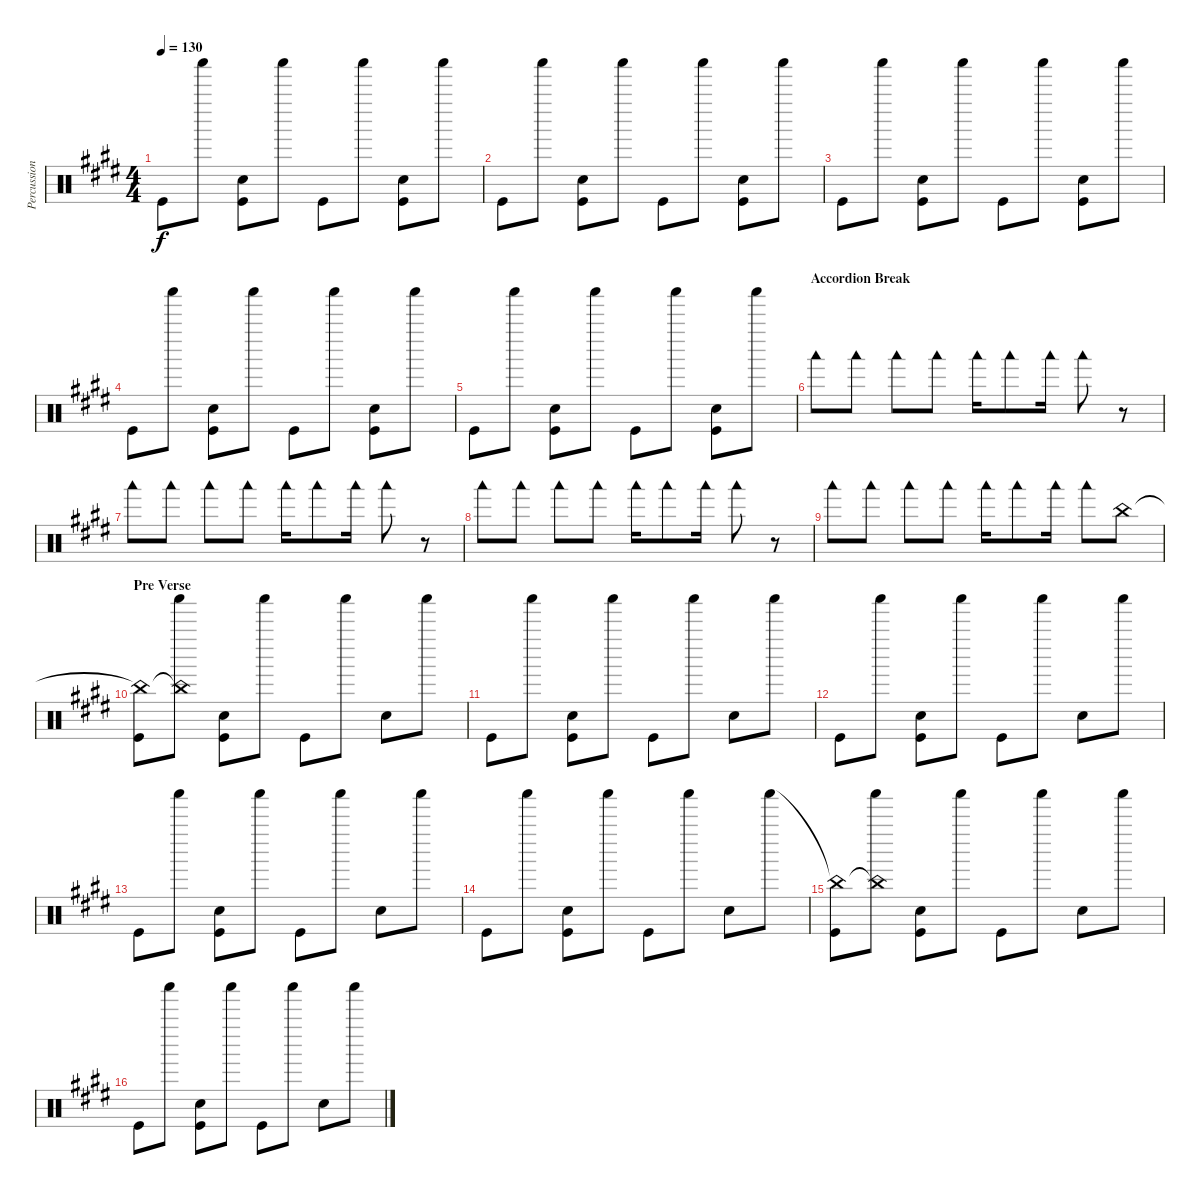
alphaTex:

\track ("Percussion" "Percussion") {instrument percussion}
\staff {score}
\articulation defaults
\ts (4 4)
\tempo 130
\clef neutral
\ks e "Kick (hit)".8{dy f} "Shaker (hit)".8
("Electric Snare (hit)" "Kick (hit)").8 "Shaker (hit)".8 "Kick (hit)".8 "Shaker (hit)".8 ("Electric Snare (hit)" "Kick (hit)").8 "Shaker (hit)".8 |
"Kick (hit)".8 "Shaker (hit)".8 ("Electric Snare (hit)" "Kick (hit)").8 "Shaker (hit)".8 "Kick (hit)".8 "Shaker (hit)".8 ("Electric Snare (hit)" "Kick (hit)").8 "Shaker (hit)".8 |
"Kick (hit)".8 "Shaker (hit)".8 ("Electric Snare (hit)" "Kick (hit)").8 "Shaker (hit)".8 "Kick (hit)".8 "Shaker (hit)".8 ("Electric Snare (hit)" "Kick (hit)").8 "Shaker (hit)".8 |
"Kick (hit)".8 "Shaker (hit)".8 ("Electric Snare (hit)" "Kick (hit)").8 "Shaker (hit)".8 "Kick (hit)".8 "Shaker (hit)".8 ("Electric Snare (hit)" "Kick (hit)").8 "Shaker (hit)".8 |
"Kick (hit)".8 "Shaker (hit)".8 ("Electric Snare (hit)" "Kick (hit)").8 "Shaker (hit)".8 "Kick (hit)".8 "Shaker (hit)".8 ("Electric Snare (hit)" "Kick (hit)").8 "Shaker (hit)".8 |
\section ("" "Accordion Break")
"Woodblock low (hit)".8 "Woodblock low (hit)".8 "Woodblock low (hit)".8 "Woodblock low (hit)".8 "Woodblock low (hit)".16 "Woodblock low (hit)".8 "Woodblock low (hit)".16 "Woodblock low (hit)".8 r.8 |
"Woodblock low (hit)".8 "Woodblock low (hit)".8 "Woodblock low (hit)".8 "Woodblock low (hit)".8 "Woodblock low (hit)".16 "Woodblock low (hit)".8 "Woodblock low (hit)".16 "Woodblock low (hit)".8 r.8 |
"Woodblock low (hit)".8 "Woodblock low (hit)".8 "Woodblock low (hit)".8 "Woodblock low (hit)".8 "Woodblock low (hit)".16 "Woodblock low (hit)".8 "Woodblock low (hit)".16 "Woodblock low (hit)".8 r.8 |
"Woodblock low (hit)".8 "Woodblock low (hit)".8 "Woodblock low (hit)".8 "Woodblock low (hit)".8 "Woodblock low (hit)".16 "Woodblock low (hit)".8 "Woodblock low (hit)".16 "Woodblock low (hit)".8 "China (hit)".8 |
\section ("" "Pre Verse")
("China (hit)"{t} "Kick (hit)").8 ("China (hit)"{t} "Shaker (hit)").8 ("Electric Snare (hit)" "Kick (hit)").8 "Shaker (hit)".8 "Kick (hit)".8 "Shaker (hit)".8 "Electric Snare (hit)".8 "Shaker (hit)".8 |
"Kick (hit)".8 "Shaker (hit)".8 ("Electric Snare (hit)" "Kick (hit)").8 "Shaker (hit)".8 "Kick (hit)".8 "Shaker (hit)".8 "Electric Snare (hit)".8 "Shaker (hit)".8 |
"Kick (hit)".8 "Shaker (hit)".8 ("Electric Snare (hit)" "Kick (hit)").8 "Shaker (hit)".8 "Kick (hit)".8 "Shaker (hit)".8 "Electric Snare (hit)".8 "Shaker (hit)".8 |
"Kick (hit)".8 "Shaker (hit)".8 ("Electric Snare (hit)" "Kick (hit)").8 "Shaker (hit)".8 "Kick (hit)".8 "Shaker (hit)".8 "Electric Snare (hit)".8 "Shaker (hit)".8 |
"Kick (hit)".8 "Shaker (hit)".8 ("Electric Snare (hit)" "Kick (hit)").8 "Shaker (hit)".8 "Kick (hit)".8 "Shaker (hit)".8 "Electric Snare (hit)".8 "Shaker (hit)".8 |
("China (hit)"{t} "Kick (hit)").8 ("China (hit)"{t} "Shaker (hit)").8 ("Electric Snare (hit)" "Kick (hit)").8 "Shaker (hit)".8 "Kick (hit)".8 "Shaker (hit)".8 "Electric Snare (hit)".8 "Shaker (hit)".8 |
"Kick (hit)".8 "Shaker (hit)".8 ("Electric Snare (hit)" "Kick (hit)").8 "Shaker (hit)".8 "Kick (hit)".8 "Shaker (hit)".8 "Electric Snare (hit)".8 "Shaker (hit)".8
